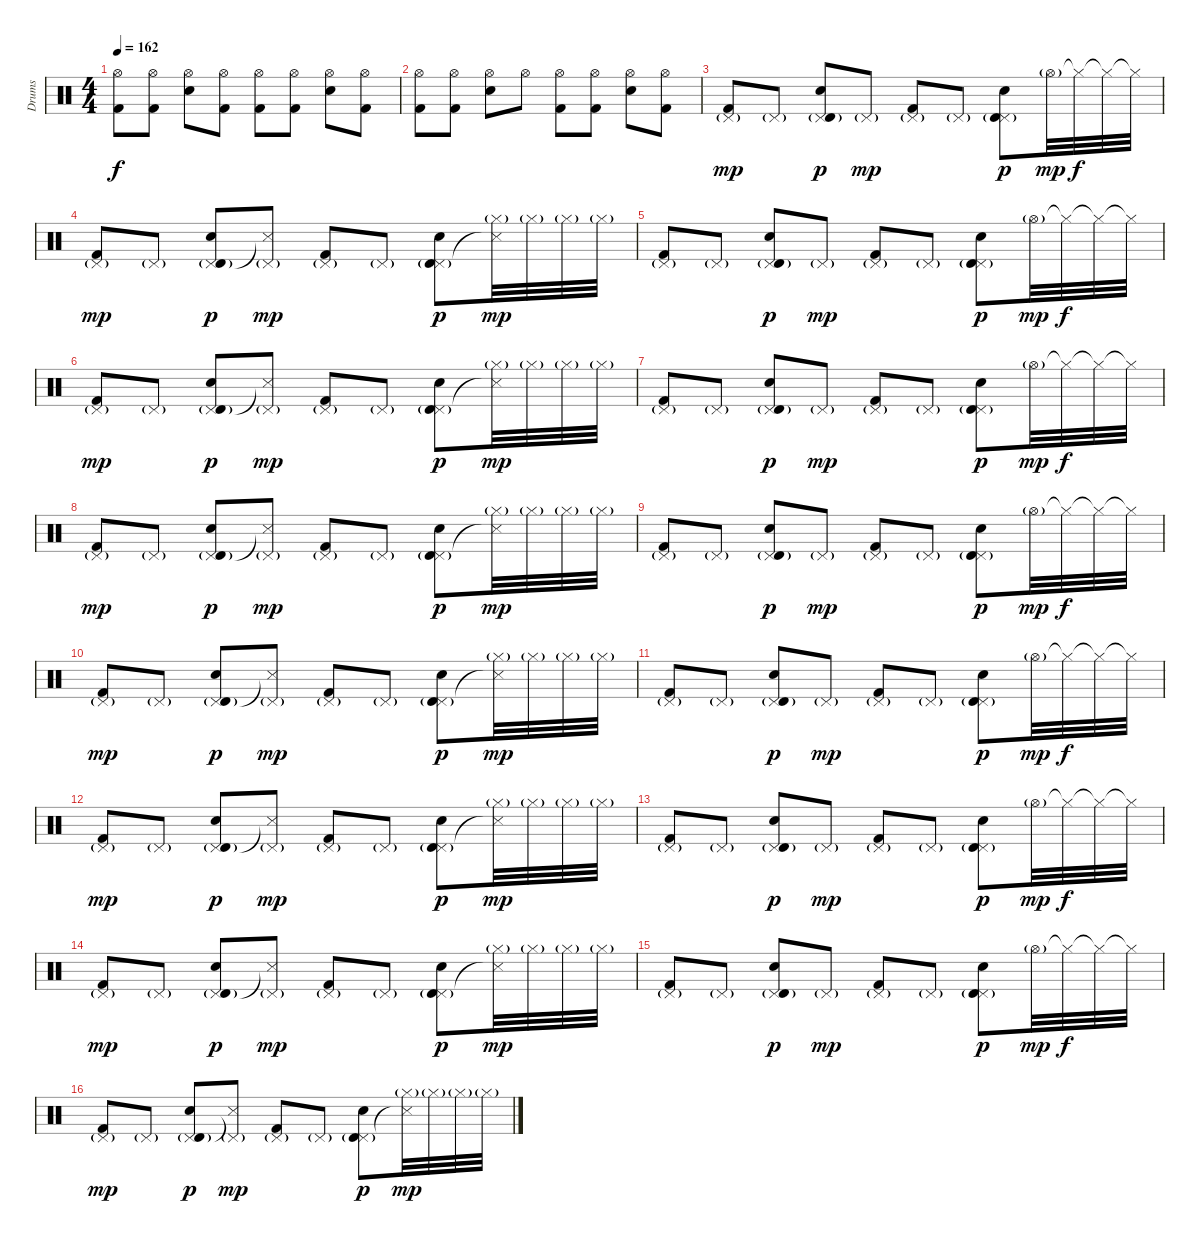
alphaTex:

\track ("Drums" "Drums") {instrument percussion}
\staff {score}
\articulation defaults
\ts (4 4)
\tempo 162
\clef neutral
\ks c
("Hi-Hat (open)" "Kick (hit) 2").8{dy f} ("Hi-Hat (open)" "Kick (hit) 2").8 ("Hi-Hat (open)" "Electric Snare (hit)").8 ("Hi-Hat (open)" "Kick (hit) 2").8 ("Hi-Hat (open)" "Kick (hit) 2").8 ("Hi-Hat (open)" "Kick (hit) 2").8 ("Hi-Hat (open)" "Electric Snare (hit)").8 ("Hi-Hat (open)" "Kick (hit) 2").8 |
("Hi-Hat (open)" "Kick (hit) 2").8 ("Hi-Hat (open)" "Kick (hit) 2").8 ("Hi-Hat (open)" "Electric Snare (hit)").8 "Hi-Hat (open)".8 ("Hi-Hat (open)" "Kick (hit) 2").8 ("Hi-Hat (open)" "Kick (hit) 2").8 ("Hi-Hat (open)" "Electric Snare (hit)").8 ("Hi-Hat (open)" "Kick (hit) 2").8 |
("Pedal Hi-Hat (hit)"{g} "Kick (hit) 2").8{dy mp} "Pedal Hi-Hat (hit)"{g}.8 ("Pedal Hi-Hat (hit)"{g} "Timbale high (hit)" "Electric Snare (hit)").8{dy p} "Pedal Hi-Hat (hit)"{g}.8{dy mp} ("Pedal Hi-Hat (hit)"{g} "Kick (hit) 2").8 "Pedal Hi-Hat (hit)"{g}.8 ("Pedal Hi-Hat (hit)"{g} "Timbale high (hit)" "Electric Snare (hit)").8{dy p} "Hi-Hat (open)"{g}.32{dy mp} "Hi-Hat (closed)"{t}.32{dy f} "Hi-Hat (closed)"{t}.32 "Hi-Hat (closed)"{t}.32 |
("Pedal Hi-Hat (hit)"{g} "Kick (hit) 2").8{dy mp} "Pedal Hi-Hat (hit)"{g}.8 ("Pedal Hi-Hat (hit)"{g} "Timbale high (hit)" "Electric Snare (hit)").8{dy p} ("Pedal Hi-Hat (hit)"{g} "Snare (side stick) 3"{t}).8{dy mp} ("Pedal Hi-Hat (hit)"{g} "Kick (hit) 2").8 "Pedal Hi-Hat (hit)"{g}.8 ("Pedal Hi-Hat (hit)"{g} "Timbale high (hit)" "Electric Snare (hit)").8{dy p} ("Hi-Hat (closed)"{g} "Snare (side stick) 3"{t}).32{dy mp} "Hi-Hat (closed)"{g}.32 "Hi-Hat (closed)"{g}.32 "Hi-Hat (closed)"{g}.32 |
("Pedal Hi-Hat (hit)"{g} "Kick (hit) 2").8 "Pedal Hi-Hat (hit)"{g}.8 ("Pedal Hi-Hat (hit)"{g} "Timbale high (hit)" "Electric Snare (hit)").8{dy p} "Pedal Hi-Hat (hit)"{g}.8{dy mp} ("Pedal Hi-Hat (hit)"{g} "Kick (hit) 2").8 "Pedal Hi-Hat (hit)"{g}.8 ("Pedal Hi-Hat (hit)"{g} "Timbale high (hit)" "Electric Snare (hit)").8{dy p} "Hi-Hat (open)"{g}.32{dy mp} "Hi-Hat (closed)"{t}.32{dy f} "Hi-Hat (closed)"{t}.32 "Hi-Hat (closed)"{t}.32 |
("Pedal Hi-Hat (hit)"{g} "Kick (hit) 2").8{dy mp} "Pedal Hi-Hat (hit)"{g}.8 ("Pedal Hi-Hat (hit)"{g} "Timbale high (hit)" "Electric Snare (hit)").8{dy p} ("Pedal Hi-Hat (hit)"{g} "Snare (side stick) 3"{t}).8{dy mp} ("Pedal Hi-Hat (hit)"{g} "Kick (hit) 2").8 "Pedal Hi-Hat (hit)"{g}.8 ("Pedal Hi-Hat (hit)"{g} "Timbale high (hit)" "Electric Snare (hit)").8{dy p} ("Hi-Hat (closed)"{g} "Snare (side stick) 3"{t}).32{dy mp} "Hi-Hat (closed)"{g}.32 "Hi-Hat (closed)"{g}.32 "Hi-Hat (closed)"{g}.32 |
("Pedal Hi-Hat (hit)"{g} "Kick (hit) 2").8 "Pedal Hi-Hat (hit)"{g}.8 ("Pedal Hi-Hat (hit)"{g} "Timbale high (hit)" "Electric Snare (hit)").8{dy p} "Pedal Hi-Hat (hit)"{g}.8{dy mp} ("Pedal Hi-Hat (hit)"{g} "Kick (hit) 2").8 "Pedal Hi-Hat (hit)"{g}.8 ("Pedal Hi-Hat (hit)"{g} "Timbale high (hit)" "Electric Snare (hit)").8{dy p} "Hi-Hat (open)"{g}.32{dy mp} "Hi-Hat (closed)"{t}.32{dy f} "Hi-Hat (closed)"{t}.32 "Hi-Hat (closed)"{t}.32 |
("Pedal Hi-Hat (hit)"{g} "Kick (hit) 2").8{dy mp} "Pedal Hi-Hat (hit)"{g}.8 ("Pedal Hi-Hat (hit)"{g} "Timbale high (hit)" "Electric Snare (hit)").8{dy p} ("Pedal Hi-Hat (hit)"{g} "Snare (side stick) 3"{t}).8{dy mp} ("Pedal Hi-Hat (hit)"{g} "Kick (hit) 2").8 "Pedal Hi-Hat (hit)"{g}.8 ("Pedal Hi-Hat (hit)"{g} "Timbale high (hit)" "Electric Snare (hit)").8{dy p} ("Hi-Hat (closed)"{g} "Snare (side stick) 3"{t}).32{dy mp} "Hi-Hat (closed)"{g}.32 "Hi-Hat (closed)"{g}.32 "Hi-Hat (closed)"{g}.32 |
("Pedal Hi-Hat (hit)"{g} "Kick (hit) 2").8 "Pedal Hi-Hat (hit)"{g}.8 ("Pedal Hi-Hat (hit)"{g} "Timbale high (hit)" "Electric Snare (hit)").8{dy p} "Pedal Hi-Hat (hit)"{g}.8{dy mp} ("Pedal Hi-Hat (hit)"{g} "Kick (hit) 2").8 "Pedal Hi-Hat (hit)"{g}.8 ("Pedal Hi-Hat (hit)"{g} "Timbale high (hit)" "Electric Snare (hit)").8{dy p} "Hi-Hat (open)"{g}.32{dy mp} "Hi-Hat (closed)"{t}.32{dy f} "Hi-Hat (closed)"{t}.32 "Hi-Hat (closed)"{t}.32 |
("Pedal Hi-Hat (hit)"{g} "Kick (hit) 2").8{dy mp} "Pedal Hi-Hat (hit)"{g}.8 ("Pedal Hi-Hat (hit)"{g} "Timbale high (hit)" "Electric Snare (hit)").8{dy p} ("Pedal Hi-Hat (hit)"{g} "Snare (side stick) 3"{t}).8{dy mp} ("Pedal Hi-Hat (hit)"{g} "Kick (hit) 2").8 "Pedal Hi-Hat (hit)"{g}.8 ("Pedal Hi-Hat (hit)"{g} "Timbale high (hit)" "Electric Snare (hit)").8{dy p} ("Hi-Hat (closed)"{g} "Snare (side stick) 3"{t}).32{dy mp} "Hi-Hat (closed)"{g}.32 "Hi-Hat (closed)"{g}.32 "Hi-Hat (closed)"{g}.32 |
("Pedal Hi-Hat (hit)"{g} "Kick (hit) 2").8 "Pedal Hi-Hat (hit)"{g}.8 ("Pedal Hi-Hat (hit)"{g} "Timbale high (hit)" "Electric Snare (hit)").8{dy p} "Pedal Hi-Hat (hit)"{g}.8{dy mp} ("Pedal Hi-Hat (hit)"{g} "Kick (hit) 2").8 "Pedal Hi-Hat (hit)"{g}.8 ("Pedal Hi-Hat (hit)"{g} "Timbale high (hit)" "Electric Snare (hit)").8{dy p} "Hi-Hat (open)"{g}.32{dy mp} "Hi-Hat (closed)"{t}.32{dy f} "Hi-Hat (closed)"{t}.32 "Hi-Hat (closed)"{t}.32 |
("Pedal Hi-Hat (hit)"{g} "Kick (hit) 2").8{dy mp} "Pedal Hi-Hat (hit)"{g}.8 ("Pedal Hi-Hat (hit)"{g} "Timbale high (hit)" "Electric Snare (hit)").8{dy p} ("Pedal Hi-Hat (hit)"{g} "Snare (side stick) 3"{t}).8{dy mp} ("Pedal Hi-Hat (hit)"{g} "Kick (hit) 2").8 "Pedal Hi-Hat (hit)"{g}.8 ("Pedal Hi-Hat (hit)"{g} "Timbale high (hit)" "Electric Snare (hit)").8{dy p} ("Hi-Hat (closed)"{g} "Snare (side stick) 3"{t}).32{dy mp} "Hi-Hat (closed)"{g}.32 "Hi-Hat (closed)"{g}.32 "Hi-Hat (closed)"{g}.32 |
("Pedal Hi-Hat (hit)"{g} "Kick (hit) 2").8 "Pedal Hi-Hat (hit)"{g}.8 ("Pedal Hi-Hat (hit)"{g} "Timbale high (hit)" "Electric Snare (hit)").8{dy p} "Pedal Hi-Hat (hit)"{g}.8{dy mp} ("Pedal Hi-Hat (hit)"{g} "Kick (hit) 2").8 "Pedal Hi-Hat (hit)"{g}.8 ("Pedal Hi-Hat (hit)"{g} "Timbale high (hit)" "Electric Snare (hit)").8{dy p} "Hi-Hat (open)"{g}.32{dy mp} "Hi-Hat (closed)"{t}.32{dy f} "Hi-Hat (closed)"{t}.32 "Hi-Hat (closed)"{t}.32 |
("Pedal Hi-Hat (hit)"{g} "Kick (hit) 2").8{dy mp} "Pedal Hi-Hat (hit)"{g}.8 ("Pedal Hi-Hat (hit)"{g} "Timbale high (hit)" "Electric Snare (hit)").8{dy p} ("Pedal Hi-Hat (hit)"{g} "Snare (side stick) 3"{t}).8{dy mp} ("Pedal Hi-Hat (hit)"{g} "Kick (hit) 2").8 "Pedal Hi-Hat (hit)"{g}.8 ("Pedal Hi-Hat (hit)"{g} "Timbale high (hit)" "Electric Snare (hit)").8{dy p} ("Hi-Hat (closed)"{g} "Snare (side stick) 3"{t}).32{dy mp} "Hi-Hat (closed)"{g}.32 "Hi-Hat (closed)"{g}.32 "Hi-Hat (closed)"{g}.32 |
("Pedal Hi-Hat (hit)"{g} "Kick (hit) 2").8 "Pedal Hi-Hat (hit)"{g}.8 ("Pedal Hi-Hat (hit)"{g} "Timbale high (hit)" "Electric Snare (hit)").8{dy p} "Pedal Hi-Hat (hit)"{g}.8{dy mp} ("Pedal Hi-Hat (hit)"{g} "Kick (hit) 2").8 "Pedal Hi-Hat (hit)"{g}.8 ("Pedal Hi-Hat (hit)"{g} "Timbale high (hit)" "Electric Snare (hit)").8{dy p} "Hi-Hat (open)"{g}.32{dy mp} "Hi-Hat (closed)"{t}.32{dy f} "Hi-Hat (closed)"{t}.32 "Hi-Hat (closed)"{t}.32 |
("Pedal Hi-Hat (hit)"{g} "Kick (hit) 2").8{dy mp} "Pedal Hi-Hat (hit)"{g}.8 ("Pedal Hi-Hat (hit)"{g} "Timbale high (hit)" "Electric Snare (hit)").8{dy p} ("Pedal Hi-Hat (hit)"{g} "Snare (side stick) 3"{t}).8{dy mp} ("Pedal Hi-Hat (hit)"{g} "Kick (hit) 2").8 "Pedal Hi-Hat (hit)"{g}.8 ("Pedal Hi-Hat (hit)"{g} "Timbale high (hit)" "Electric Snare (hit)").8{dy p} ("Hi-Hat (closed)"{g} "Snare (side stick) 3"{t}).32{dy mp} "Hi-Hat (closed)"{g}.32 "Hi-Hat (closed)"{g}.32 "Hi-Hat (closed)"{g}.32
